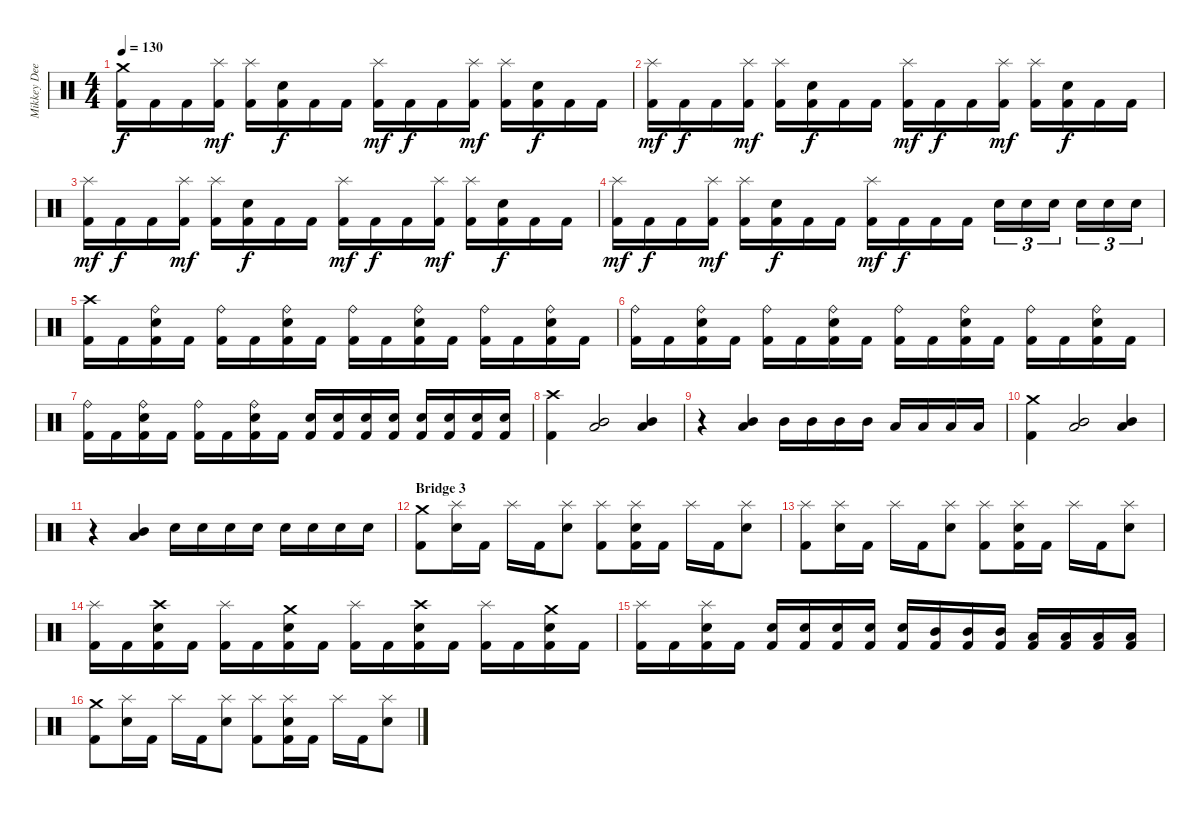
\track ("Mikkey Dee" "Mikkey Dee") {instrument percussion}
\staff {score}
\articulation defaults
\ts (4 4)
\tempo 130
\clef neutral
\ks c
("Crash medium (hit)" "Kick (hit) 2").16{dy f} "Kick (hit) 2".16 "Kick (hit) 2".16 ("Splash (hit)" "Kick (hit) 2").16{dy mf} ("Splash (hit)" "Kick (hit) 2").16 ("Snare (hit) 2" "Kick (hit) 2").16{dy f} "Kick (hit) 2".16 "Kick (hit) 2".16 ("Splash (hit)" "Kick (hit) 2").16{dy mf} "Kick (hit) 2".16{dy f} "Kick (hit) 2".16 ("Splash (hit)" "Kick (hit) 2").16{dy mf} ("Splash (hit)" "Kick (hit) 2").16 ("Snare (hit) 2" "Kick (hit) 2").16{dy f} "Kick (hit) 2".16 "Kick (hit) 2".16 |
("Splash (hit)" "Kick (hit) 2").16{dy mf} "Kick (hit) 2".16{dy f} "Kick (hit) 2".16 ("Splash (hit)" "Kick (hit) 2").16{dy mf} ("Splash (hit)" "Kick (hit) 2").16 ("Snare (hit) 2" "Kick (hit) 2").16{dy f} "Kick (hit) 2".16 "Kick (hit) 2".16 ("Splash (hit)" "Kick (hit) 2").16{dy mf} "Kick (hit) 2".16{dy f} "Kick (hit) 2".16 ("Splash (hit)" "Kick (hit) 2").16{dy mf} ("Splash (hit)" "Kick (hit) 2").16 ("Snare (hit) 2" "Kick (hit) 2").16{dy f} "Kick (hit) 2".16 "Kick (hit) 2".16 |
("Splash (hit)" "Kick (hit) 2").16{dy mf} "Kick (hit) 2".16{dy f} "Kick (hit) 2".16 ("Splash (hit)" "Kick (hit) 2").16{dy mf} ("Splash (hit)" "Kick (hit) 2").16 ("Snare (hit) 2" "Kick (hit) 2").16{dy f} "Kick (hit) 2".16 "Kick (hit) 2".16 ("Splash (hit)" "Kick (hit) 2").16{dy mf} "Kick (hit) 2".16{dy f} "Kick (hit) 2".16 ("Splash (hit)" "Kick (hit) 2").16{dy mf} ("Splash (hit)" "Kick (hit) 2").16 ("Snare (hit) 2" "Kick (hit) 2").16{dy f} "Kick (hit) 2".16 "Kick (hit) 2".16 |
("Splash (hit)" "Kick (hit) 2").16{dy mf} "Kick (hit) 2".16{dy f} "Kick (hit) 2".16 ("Splash (hit)" "Kick (hit) 2").16{dy mf} ("Splash (hit)" "Kick (hit) 2").16 ("Snare (hit) 2" "Kick (hit) 2").16{dy f} "Kick (hit) 2".16 "Kick (hit) 2".16 ("Splash (hit)" "Kick (hit) 2").16{dy mf} "Kick (hit) 2".16{dy f} "Kick (hit) 2".16 "Kick (hit) 2".16 "Snare (hit) 2".16{tu (3 2)} "Snare (hit) 2".16{tu (3 2)} "Snare (hit) 2".16{tu (3 2)} "Snare (hit) 2".16{tu (3 2)} "Snare (hit) 2".16{tu (3 2)} "Snare (hit) 2".16{tu (3 2)} |
("Crash high (hit)" "Kick (hit) 2").16 "Kick (hit) 2".16 ("Ride (bell)" "Snare (hit) 2" "Kick (hit) 2").16 "Kick (hit) 2".16 ("Ride (bell)" "Kick (hit) 2").16 "Kick (hit) 2".16 ("Ride (bell)" "Snare (hit) 2" "Kick (hit) 2").16 "Kick (hit) 2".16 ("Ride (bell)" "Kick (hit) 2").16 "Kick (hit) 2".16 ("Ride (bell)" "Snare (hit) 2" "Kick (hit) 2").16 "Kick (hit) 2".16 ("Ride (bell)" "Kick (hit) 2").16 "Kick (hit) 2".16 ("Ride (bell)" "Snare (hit) 2" "Kick (hit) 2").16 "Kick (hit) 2".16 |
("Ride (bell)" "Kick (hit) 2").16 "Kick (hit) 2".16 ("Ride (bell)" "Snare (hit) 2" "Kick (hit) 2").16 "Kick (hit) 2".16 ("Ride (bell)" "Kick (hit) 2").16 "Kick (hit) 2".16 ("Ride (bell)" "Snare (hit) 2" "Kick (hit) 2").16 "Kick (hit) 2".16 ("Ride (bell)" "Kick (hit) 2").16 "Kick (hit) 2".16 ("Ride (bell)" "Snare (hit) 2" "Kick (hit) 2").16 "Kick (hit) 2".16 ("Ride (bell)" "Kick (hit) 2").16 "Kick (hit) 2".16 ("Ride (bell)" "Snare (hit) 2" "Kick (hit) 2").16 "Kick (hit) 2".16 |
("Ride (bell)" "Kick (hit) 2").16 "Kick (hit) 2".16 ("Ride (bell)" "Snare (hit) 2" "Kick (hit) 2").16 "Kick (hit) 2".16 ("Ride (bell)" "Kick (hit) 2").16 "Kick (hit) 2".16 ("Ride (bell)" "Snare (hit) 2" "Kick (hit) 2").16 "Kick (hit) 2".16 ("Snare (hit) 2" "Kick (hit) 2").16 ("Snare (hit) 2" "Kick (hit) 2").16 ("Snare (hit) 2" "Kick (hit) 2").16 ("Snare (hit) 2" "Kick (hit) 2").16 ("Snare (hit) 2" "Kick (hit) 2").16 ("Snare (hit) 2" "Kick (hit) 2").16 ("Snare (hit) 2" "Kick (hit) 2").16 ("Snare (hit) 2" "Kick (hit) 2").16 |
("Crash high (hit)" "Kick (hit) 2").4 ("Mid Tom (hit)" "Low Tom (hit)").2 ("Mid Tom (hit)" "Low Tom (hit)").4 |
r.4 ("Mid Tom (hit)" "Low Tom (hit)").4 "Mid Tom (hit)".16 "Mid Tom (hit)".16 "Mid Tom (hit)".16 "Mid Tom (hit)".16 "Low Tom (hit)".16 "Low Tom (hit)".16 "Low Tom (hit)".16 "Low Tom (hit)".16 |
("Crash medium (hit)" "Kick (hit) 2").4 ("Mid Tom (hit)" "Low Tom (hit)").2 ("Mid Tom (hit)" "Low Tom (hit)").4 |
r.4 ("Mid Tom (hit)" "Low Tom (hit)").4 "Snare (hit) 2".16 "Snare (hit) 2".16 "Snare (hit) 2".16 "Snare (hit) 2".16 "Snare (hit) 2".16 "Snare (hit) 2".16 "Snare (hit) 2".16 "Snare (hit) 2".16 |
\section ("" "Bridge 3")
("Crash medium (hit)" "Kick (hit) 2").8 ("Splash (hit)" "Snare (hit) 2").16 "Kick (hit) 2".16 "Splash (hit)".16 "Kick (hit) 2".16 ("Splash (hit)" "Snare (hit) 2").8 ("Splash (hit)" "Kick (hit) 2").8 ("Splash (hit)" "Snare (hit) 2" "Kick (hit) 2").16 "Kick (hit) 2".16 "Splash (hit)".16 "Kick (hit) 2".16 ("Splash (hit)" "Snare (hit) 2").8 |
("Splash (hit)" "Kick (hit) 2").8 ("Splash (hit)" "Snare (hit) 2").16 "Kick (hit) 2".16 "Splash (hit)".16 "Kick (hit) 2".16 ("Splash (hit)" "Snare (hit) 2").8 ("Splash (hit)" "Kick (hit) 2").8 ("Splash (hit)" "Snare (hit) 2" "Kick (hit) 2").16 "Kick (hit) 2".16 "Splash (hit)".16 "Kick (hit) 2".16 ("Splash (hit)" "Snare (hit) 2").8 |
("Splash (hit)" "Kick (hit) 2").16 "Kick (hit) 2".16 ("Crash high (hit)" "Snare (hit) 2" "Kick (hit) 2").16 "Kick (hit) 2".16 ("Splash (hit)" "Kick (hit) 2").16 "Kick (hit) 2".16 ("Crash medium (hit)" "Snare (hit) 2" "Kick (hit) 2").16 "Kick (hit) 2".16 ("Splash (hit)" "Kick (hit) 2").16 "Kick (hit) 2".16 ("Crash high (hit)" "Snare (hit) 2" "Kick (hit) 2").16 "Kick (hit) 2".16 ("Splash (hit)" "Kick (hit) 2").16 "Kick (hit) 2".16 ("Crash medium (hit)" "Snare (hit) 2" "Kick (hit) 2").16 "Kick (hit) 2".16 |
("Splash (hit)" "Kick (hit) 2").16 "Kick (hit) 2".16 ("Splash (hit)" "Snare (hit) 2" "Kick (hit) 2").16 "Kick (hit) 2".16 ("Snare (hit) 2" "Kick (hit) 2").16 ("Snare (hit) 2" "Kick (hit) 2").16 ("Snare (hit) 2" "Kick (hit) 2").16 ("Snare (hit) 2" "Kick (hit) 2").16 ("Snare (hit) 2" "Kick (hit) 2").16 ("Mid Tom (hit)" "Kick (hit) 2").16 ("Mid Tom (hit)" "Kick (hit) 2").16 ("Mid Tom (hit)" "Kick (hit) 2").16 ("Low Tom (hit)" "Kick (hit) 2").16 ("Low Tom (hit)" "Kick (hit) 2").16 ("Low Tom (hit)" "Kick (hit) 2").16 ("Low Tom (hit)" "Kick (hit) 2").16 |
("Crash medium (hit)" "Kick (hit) 2").8 ("Splash (hit)" "Snare (hit) 2").16 "Kick (hit) 2".16 "Splash (hit)".16 "Kick (hit) 2".16 ("Splash (hit)" "Snare (hit) 2").8 ("Splash (hit)" "Kick (hit) 2").8 ("Splash (hit)" "Snare (hit) 2" "Kick (hit) 2").16 "Kick (hit) 2".16 "Splash (hit)".16 "Kick (hit) 2".16 ("Splash (hit)" "Snare (hit) 2").8
